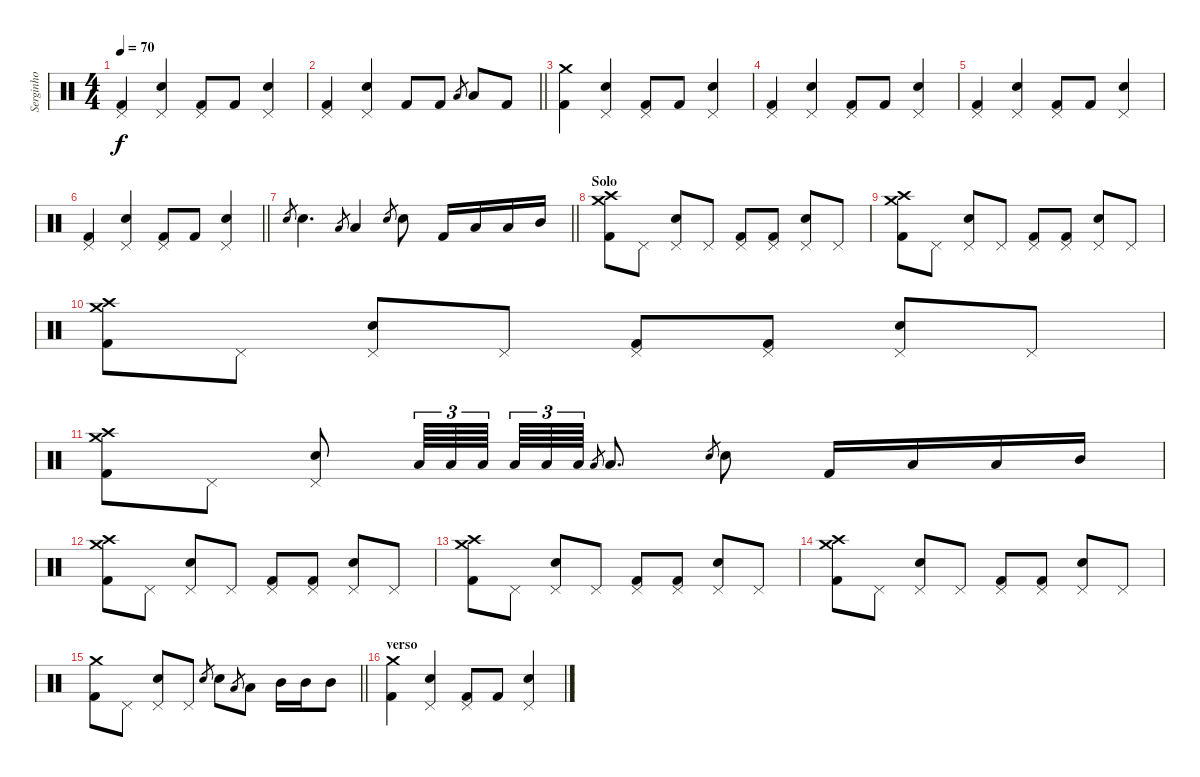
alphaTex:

\track ("Serginho" "Serginho") {instrument percussion}
\staff {score}
\articulation defaults
\ts (4 4)
\tempo 70
\clef neutral
\ks c
("Pedal Hi-Hat (hit)" "Kick (hit) 2").4{dy f} ("Pedal Hi-Hat (hit)" "Snare (hit) 2").4 ("Pedal Hi-Hat (hit)" "Kick (hit) 2").8 "Kick (hit) 2".8 ("Pedal Hi-Hat (hit)" "Snare (hit) 2").4 |
\barLineRight lightlight
("Pedal Hi-Hat (hit)" "Kick (hit) 2").4 ("Pedal Hi-Hat (hit)" "Snare (hit) 2").4 "Kick (hit) 2".8 "Kick (hit) 2".8 "Low Tom (hit)".8{gr} "Low Tom (hit)".8 "Kick (hit) 2".8 |
("Crash medium (hit)" "Kick (hit) 2").4 ("Pedal Hi-Hat (hit)" "Snare (hit) 2").4 ("Pedal Hi-Hat (hit)" "Kick (hit) 2").8 "Kick (hit) 2".8 ("Pedal Hi-Hat (hit)" "Snare (hit) 2").4 |
("Pedal Hi-Hat (hit)" "Kick (hit) 2").4 ("Pedal Hi-Hat (hit)" "Snare (hit) 2").4 ("Pedal Hi-Hat (hit)" "Kick (hit) 2").8 "Kick (hit) 2".8 ("Pedal Hi-Hat (hit)" "Snare (hit) 2").4 |
("Pedal Hi-Hat (hit)" "Kick (hit) 2").4 ("Pedal Hi-Hat (hit)" "Snare (hit) 2").4 ("Pedal Hi-Hat (hit)" "Kick (hit) 2").8 "Kick (hit) 2".8 ("Pedal Hi-Hat (hit)" "Snare (hit) 2").4 |
\barLineRight lightlight
("Pedal Hi-Hat (hit)" "Kick (hit) 2").4 ("Pedal Hi-Hat (hit)" "Snare (hit) 2").4 ("Pedal Hi-Hat (hit)" "Kick (hit) 2").8 "Kick (hit) 2".8 ("Pedal Hi-Hat (hit)" "Snare (hit) 2").4 |
\barLineRight lightlight "Snare (hit) 2".8{gr} "Snare (hit) 2".4{d} "Low Tom (hit)".8{gr} "Low Tom (hit)".4 "Snare (hit) 2".8{gr} "Snare (hit) 2".8 "Kick (hit) 2".16 "Low Tom (hit)".16 "Low Tom (hit)".16 "Mid Tom (hit)".16
|
\section ("" "Solo")
("Crash medium (hit)" "Crash high (hit)" "Kick (hit) 2").8 "Pedal Hi-Hat (hit)".8 ("Pedal Hi-Hat (hit)" "Snare (hit) 2").8 "Pedal Hi-Hat (hit)".8 ("Pedal Hi-Hat (hit)" "Kick (hit) 2").8 ("Pedal Hi-Hat (hit)" "Kick (hit) 2").8 ("Pedal Hi-Hat (hit)" "Snare (hit) 2").8 "Pedal Hi-Hat (hit)".8 |
("Crash medium (hit)" "Crash high (hit)" "Kick (hit) 2").8 "Pedal Hi-Hat (hit)".8 ("Pedal Hi-Hat (hit)" "Snare (hit) 2").8 "Pedal Hi-Hat (hit)".8 ("Pedal Hi-Hat (hit)" "Kick (hit) 2").8 ("Pedal Hi-Hat (hit)" "Kick (hit) 2").8 ("Pedal Hi-Hat (hit)" "Snare (hit) 2").8 "Pedal Hi-Hat (hit)".8 |
("Crash medium (hit)" "Crash high (hit)" "Kick (hit) 2").8 "Pedal Hi-Hat (hit)".8 ("Pedal Hi-Hat (hit)" "Snare (hit) 2").8 "Pedal Hi-Hat (hit)".8 ("Pedal Hi-Hat (hit)" "Kick (hit) 2").8 ("Pedal Hi-Hat (hit)" "Kick (hit) 2").8 ("Pedal Hi-Hat (hit)" "Snare (hit) 2").8 "Pedal Hi-Hat (hit)".8 |
("Crash high (hit)" "Crash medium (hit)" "Kick (hit) 2").8 "Pedal Hi-Hat (hit)".8 ("Pedal Hi-Hat (hit)" "Snare (hit) 2").8 "Low Tom (hit)".64{tu (3 2)} "Low Tom (hit)".64{tu (3 2)} "Low Tom (hit)".64{tu (3 2) beam splitsecondary} "Low Tom (hit)".64{tu (3 2)} "Low Tom (hit)".64{tu (3 2)} "Low Tom (hit)".64{tu (3 2)} "Low Tom (hit)".8{gr} "Low Tom (hit)".8{d} "Snare (hit) 2".8{gr} "Snare (hit) 2".8 "Kick (hit) 2".16 "Low Tom (hit)".16 "Low Tom (hit)".16 "Mid Tom (hit)".16 |
("Crash medium (hit)" "Crash high (hit)" "Kick (hit) 2").8 "Pedal Hi-Hat (hit)".8 ("Pedal Hi-Hat (hit)" "Snare (hit) 2").8 "Pedal Hi-Hat (hit)".8 ("Pedal Hi-Hat (hit)" "Kick (hit) 2").8 ("Pedal Hi-Hat (hit)" "Kick (hit) 2").8 ("Pedal Hi-Hat (hit)" "Snare (hit) 2").8 "Pedal Hi-Hat (hit)".8 |
("Crash medium (hit)" "Crash high (hit)" "Kick (hit) 2").8 "Pedal Hi-Hat (hit)".8 ("Pedal Hi-Hat (hit)" "Snare (hit) 2").8 "Pedal Hi-Hat (hit)".8 ("Pedal Hi-Hat (hit)" "Kick (hit) 2").8 ("Pedal Hi-Hat (hit)" "Kick (hit) 2").8 ("Pedal Hi-Hat (hit)" "Snare (hit) 2").8 "Pedal Hi-Hat (hit)".8 |
("Crash medium (hit)" "Crash high (hit)" "Kick (hit) 2").8 "Pedal Hi-Hat (hit)".8 ("Pedal Hi-Hat (hit)" "Snare (hit) 2").8 "Pedal Hi-Hat (hit)".8 ("Pedal Hi-Hat (hit)" "Kick (hit) 2").8 ("Pedal Hi-Hat (hit)" "Kick (hit) 2").8 ("Pedal Hi-Hat (hit)" "Snare (hit) 2").8 "Pedal Hi-Hat (hit)".8 |
\barLineRight lightlight
("Crash medium (hit)" "Kick (hit) 2").8 "Pedal Hi-Hat (hit)".8 ("Pedal Hi-Hat (hit)" "Snare (hit) 2").8 "Pedal Hi-Hat (hit)".8 "Snare (hit) 2".8{gr} "Snare (hit) 2".8 "Low Tom (hit)".8{gr} "Low Tom (hit)".8 "Mid Tom (hit)".16 "Mid Tom (hit)".16 "Mid Tom (hit)".8 |
\section ("" "verso")
("Crash medium (hit)" "Kick (hit) 2").4 ("Pedal Hi-Hat (hit)" "Snare (hit) 2").4 ("Pedal Hi-Hat (hit)" "Kick (hit) 2").8 "Kick (hit) 2".8 ("Pedal Hi-Hat (hit)" "Snare (hit) 2").4
